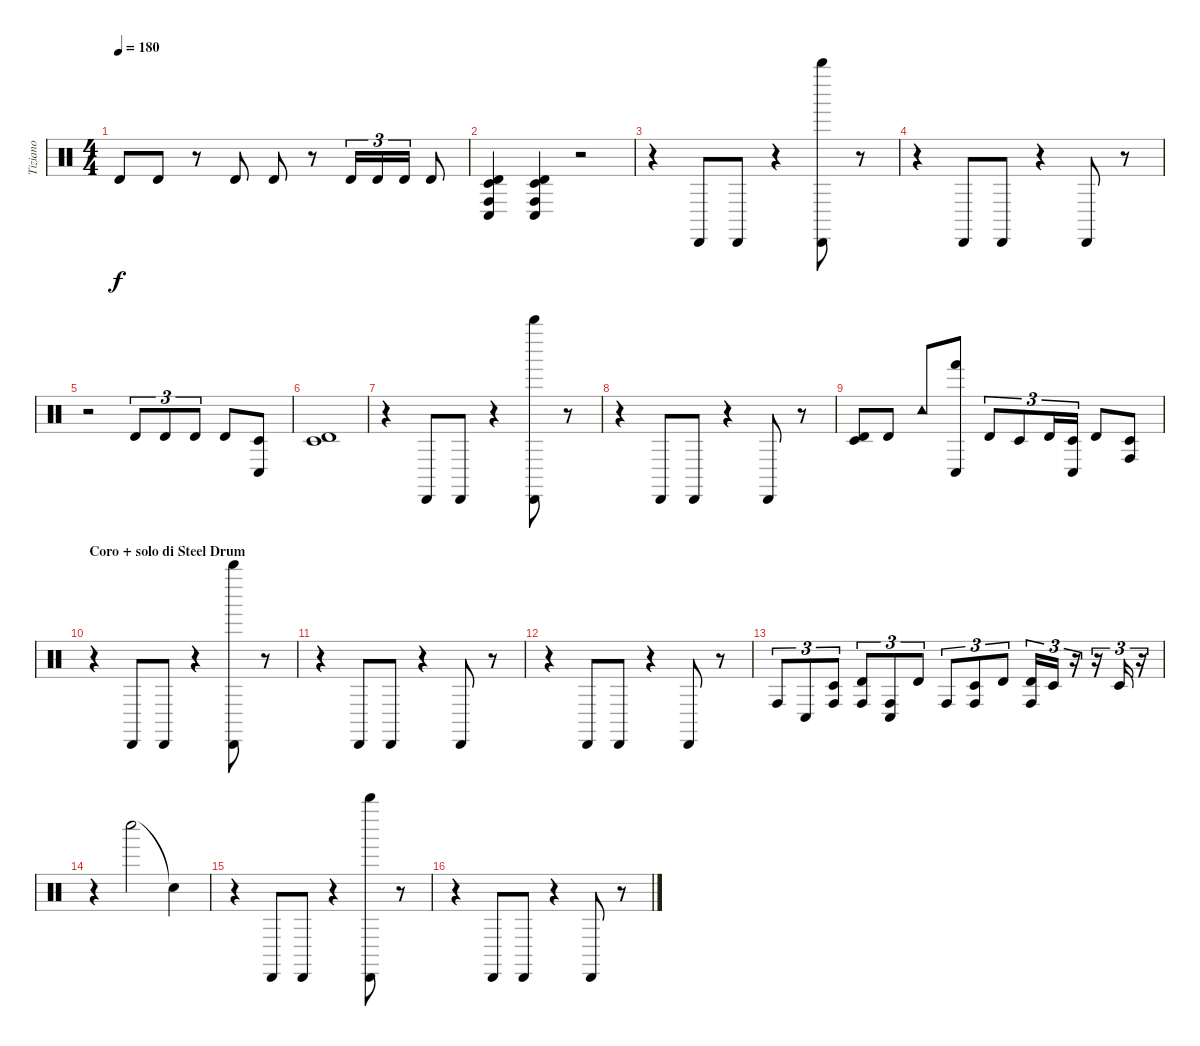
\track ("Tiziano" "Tiziano") {instrument percussion}
\staff {score}
\articulation defaults
\ts (4 4)
\tempo 180
\clef neutral
\ks c "Timbale high (hit)".8{dy f} "Timbale high (hit)".8
r.8 "Timbale high (hit)".8 "Timbale high (hit)".8 r.8 "Timbale high (hit)".16{tu (3 2)} "Timbale high (hit)".16{tu (3 2)} "Timbale high (hit)".16{tu (3 2)} "Timbale high (hit)".8 |
("Timbale low (hit)" "Timbale high (hit)" "Conga low (hit)" "Conga high (hit)").4 ("Timbale low (hit)" "Timbale high (hit)" "Conga low (hit)" "Conga high (hit)").4 r.2 |
r.4 "Cabasa (hit)".8 "Cabasa (hit)".8 r.4 ("Cabasa (hit)" "Whistle high (hit)").8 r.8 |
r.4 "Cabasa (hit)".8 "Cabasa (hit)".8 r.4 "Cabasa (hit)".8 r.8 |
r.2 "Timbale high (hit)".8{tu (3 2)} "Timbale high (hit)".8{tu (3 2)} "Timbale high (hit)".8{tu (3 2)} "Timbale high (hit)".8 ("Conga low (hit)" "Timbale low (hit)").8 |
("Timbale high (hit)" "Timbale low (hit)").1 |
r.4 "Cabasa (hit)".8 "Cabasa (hit)".8 r.4 ("Cabasa (hit)" "Whistle high (hit)").8 r.8 |
r.4 "Cabasa (hit)".8 "Cabasa (hit)".8 r.4 "Cabasa (hit)".8 r.8 |
("Timbale low (hit)" "Timbale high (hit)").8 "Timbale high (hit)".8 "Tambourine (hit)".8 ("Conga low (hit)" "Hand (hit)").8 "Timbale high (hit)".8{tu (3 2)} "Timbale low (hit)".8{tu (3 2)} "Timbale high (hit)".16{tu (3 2)} ("Conga low (hit)" "Timbale low (hit)").16{tu (3 2)} "Timbale high (hit)".8 ("Timbale low (hit)" "Conga high (hit)").8 |
\section ("" "Coro + solo di Steel Drum")
r.4{volume 12} "Cabasa (hit)".8 "Cabasa (hit)".8 r.4 ("Cabasa (hit)" "Whistle high (hit)").8 r.8 |
r.4 "Cabasa (hit)".8 "Cabasa (hit)".8 r.4 "Cabasa (hit)".8 r.8 |
r.4 "Cabasa (hit)".8 "Cabasa (hit)".8 r.4 "Cabasa (hit)".8 r.8 |
"Conga high (hit)".8{tu (3 2)} "Conga low (hit)".8{tu (3 2)} ("Conga high (hit)" "Timbale low (hit)").8{tu (3 2)} ("Conga high (hit)" "Timbale high (hit)").8{tu (3 2)} ("Conga high (hit)" "Conga low (hit)").8{tu (3 2)} "Timbale high (hit)".8{tu (3 2)} "Conga high (hit)".8{tu (3 2)} ("Timbale low (hit)" "Conga high (hit)").8{tu (3 2)} "Timbale high (hit)".8{tu (3 2)} ("Conga high (hit)" "Timbale high (hit)").16{tu (3 2)} "Timbale low (hit)".16{tu (3 2)} r.16{tu (3 2)} r.16{tu (3 2)} "Timbale low (hit)".16{tu (3 2)} r.16{tu (3 2)} |
r.4{volume 8} "Whistle low (hit)".2 "Snare (hit)"{t}.4 |
r.4 "Cabasa (hit)".8 "Cabasa (hit)".8 r.4 ("Cabasa (hit)" "Whistle high (hit)").8 r.8 |
r.4 "Cabasa (hit)".8 "Cabasa (hit)".8 r.4 "Cabasa (hit)".8 r.8
